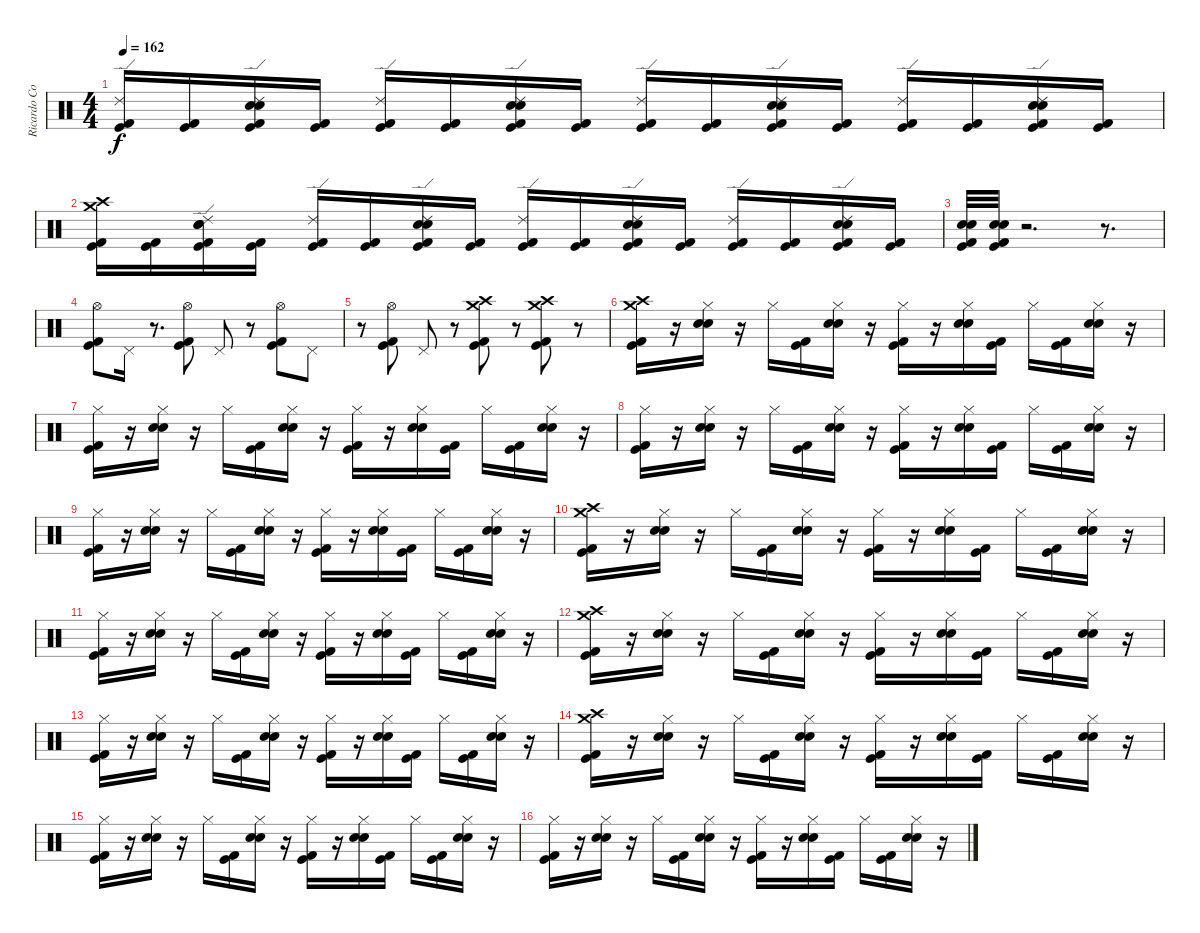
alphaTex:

\track ("Ricardo Confessori" "Ricardo Co") {instrument percussion}
\staff {score}
\articulation defaults
\ts (4 4)
\tempo 162
\clef neutral
\ks c
("Ride (edge) 2" "Kick (hit) 2" "Kick (hit)").16{dy f} ("Kick (hit) 2" "Kick (hit)").16 ("Ride (edge) 2" "Snare (hit) 2" "Electric Snare (hit)" "Kick (hit) 2" "Kick (hit)").16 ("Kick (hit) 2" "Kick (hit)").16 ("Ride (edge) 2" "Kick (hit) 2" "Kick (hit)").16 ("Kick (hit) 2" "Kick (hit)").16 ("Ride (edge) 2" "Electric Snare (hit)" "Snare (hit) 2" "Kick (hit) 2" "Kick (hit)").16 ("Kick (hit) 2" "Kick (hit)").16 ("Ride (edge) 2" "Kick (hit) 2" "Kick (hit)").16 ("Kick (hit) 2" "Kick (hit)").16 ("Ride (edge) 2" "Snare (hit) 2" "Electric Snare (hit)" "Kick (hit) 2" "Kick (hit)").16 ("Kick (hit) 2" "Kick (hit)").16 ("Ride (edge) 2" "Kick (hit) 2" "Kick (hit)").16 ("Kick (hit) 2" "Kick (hit)").16 ("Ride (edge) 2" "Electric Snare (hit)" "Snare (hit) 2" "Kick (hit) 2" "Kick (hit)").16 ("Kick (hit) 2" "Kick (hit)").16 |
("Crash high (hit)" "Crash medium (hit)" "Kick (hit) 2" "Kick (hit)").16 ("Kick (hit) 2" "Kick (hit)").16 ("Ride (edge) 2" "Snare (hit) 2" "Electric Snare (hit)" "Kick (hit) 2" "Kick (hit)").16 ("Kick (hit) 2" "Kick (hit)").16 ("Ride (edge) 2" "Kick (hit) 2" "Kick (hit)").16 ("Kick (hit) 2" "Kick (hit)").16 ("Ride (edge) 2" "Electric Snare (hit)" "Snare (hit) 2" "Kick (hit) 2" "Kick (hit)").16 ("Kick (hit) 2" "Kick (hit)").16 ("Ride (edge) 2" "Kick (hit) 2" "Kick (hit)").16 ("Kick (hit) 2" "Kick (hit)").16 ("Ride (edge) 2" "Snare (hit) 2" "Electric Snare (hit)" "Kick (hit) 2" "Kick (hit)").16 ("Kick (hit) 2" "Kick (hit)").16 ("Ride (edge) 2" "Kick (hit) 2" "Kick (hit)").16 ("Kick (hit) 2" "Kick (hit)").16 ("Ride (edge) 2" "Electric Snare (hit)" "Snare (hit) 2" "Kick (hit) 2" "Kick (hit)").16 ("Kick (hit) 2" "Kick (hit)").16 |
("Electric Snare (hit)" "Kick (hit) 2" "Kick (hit)" "Snare (hit) 2").32 ("Electric Snare (hit)" "Kick (hit) 2" "Kick (hit)" "Snare (hit) 2").32 r.2{d} r.8{d} |
("Kick (hit) 2" "Kick (hit)" "Hi-Hat (open)").8 "Pedal Hi-Hat (hit)".16 r.8{d} ("Kick (hit) 2" "Kick (hit)" "Hi-Hat (open)").8 "Pedal Hi-Hat (hit)".8 r.8 ("Kick (hit)" "Hi-Hat (open)" "Kick (hit) 2").8 "Pedal Hi-Hat (hit)".8 |
r.8 ("Hi-Hat (open)" "Kick (hit)" "Kick (hit) 2").8 "Pedal Hi-Hat (hit)".8 r.8 ("Crash high (hit)" "Crash medium (hit)" "Kick (hit)" "Kick (hit) 2").8 r.8 ("Crash high (hit)" "Crash medium (hit)" "Kick (hit) 2" "Kick (hit)").8 r.8 |
("Crash medium (hit)" "Crash high (hit)" "Kick (hit) 2" "Kick (hit)").16 r.16 ("Hi-Hat (closed)" "Electric Snare (hit)" "Snare (hit) 2").16 r.16 "Hi-Hat (closed)".16 ("Kick (hit) 2" "Kick (hit)").16 ("Hi-Hat (closed)" "Electric Snare (hit)" "Snare (hit) 2").16 r.16 ("Hi-Hat (closed)" "Kick (hit) 2" "Kick (hit)").16 r.16 ("Hi-Hat (closed)" "Electric Snare (hit)" "Snare (hit) 2").16 ("Kick (hit) 2" "Kick (hit)").16 "Hi-Hat (closed)".16 ("Kick (hit) 2" "Kick (hit)").16 ("Hi-Hat (closed)" "Electric Snare (hit)" "Snare (hit) 2").16 r.16 |
("Hi-Hat (closed)" "Kick (hit) 2" "Kick (hit)").16 r.16 ("Hi-Hat (closed)" "Electric Snare (hit)" "Snare (hit) 2").16 r.16 "Hi-Hat (closed)".16 ("Kick (hit) 2" "Kick (hit)").16 ("Hi-Hat (closed)" "Electric Snare (hit)" "Snare (hit) 2").16 r.16 ("Hi-Hat (closed)" "Kick (hit) 2" "Kick (hit)").16 r.16 ("Hi-Hat (closed)" "Electric Snare (hit)" "Snare (hit) 2").16 ("Kick (hit) 2" "Kick (hit)").16 "Hi-Hat (closed)".16 ("Kick (hit) 2" "Kick (hit)").16 ("Hi-Hat (closed)" "Electric Snare (hit)" "Snare (hit) 2").16 r.16 |
("Hi-Hat (closed)" "Kick (hit) 2" "Kick (hit)").16 r.16 ("Hi-Hat (closed)" "Electric Snare (hit)" "Snare (hit) 2").16 r.16 "Hi-Hat (closed)".16 ("Kick (hit) 2" "Kick (hit)").16 ("Hi-Hat (closed)" "Electric Snare (hit)" "Snare (hit) 2").16 r.16 ("Hi-Hat (closed)" "Kick (hit) 2" "Kick (hit)").16 r.16 ("Hi-Hat (closed)" "Electric Snare (hit)" "Snare (hit) 2").16 ("Kick (hit) 2" "Kick (hit)").16 "Hi-Hat (closed)".16 ("Kick (hit) 2" "Kick (hit)").16 ("Hi-Hat (closed)" "Electric Snare (hit)" "Snare (hit) 2").16 r.16 |
("Hi-Hat (closed)" "Kick (hit) 2" "Kick (hit)").16 r.16 ("Hi-Hat (closed)" "Electric Snare (hit)" "Snare (hit) 2").16 r.16 "Hi-Hat (closed)".16 ("Kick (hit) 2" "Kick (hit)").16 ("Hi-Hat (closed)" "Electric Snare (hit)" "Snare (hit) 2").16 r.16 ("Hi-Hat (closed)" "Kick (hit) 2" "Kick (hit)").16 r.16 ("Hi-Hat (closed)" "Electric Snare (hit)" "Snare (hit) 2").16 ("Kick (hit) 2" "Kick (hit)").16 "Hi-Hat (closed)".16 ("Kick (hit) 2" "Kick (hit)").16 ("Hi-Hat (closed)" "Electric Snare (hit)" "Snare (hit) 2").16 r.16 |
("Crash medium (hit)" "Crash high (hit)" "Kick (hit) 2" "Kick (hit)").16 r.16 ("Hi-Hat (closed)" "Electric Snare (hit)" "Snare (hit) 2").16 r.16 "Hi-Hat (closed)".16 ("Kick (hit) 2" "Kick (hit)").16 ("Hi-Hat (closed)" "Electric Snare (hit)" "Snare (hit) 2").16 r.16 ("Hi-Hat (closed)" "Kick (hit) 2" "Kick (hit)").16 r.16 ("Hi-Hat (closed)" "Electric Snare (hit)" "Snare (hit) 2").16 ("Kick (hit) 2" "Kick (hit)").16 "Hi-Hat (closed)".16 ("Kick (hit) 2" "Kick (hit)").16 ("Hi-Hat (closed)" "Electric Snare (hit)" "Snare (hit) 2").16 r.16 |
("Hi-Hat (closed)" "Kick (hit) 2" "Kick (hit)").16 r.16 ("Hi-Hat (closed)" "Electric Snare (hit)" "Snare (hit) 2").16 r.16 "Hi-Hat (closed)".16 ("Kick (hit) 2" "Kick (hit)").16 ("Hi-Hat (closed)" "Electric Snare (hit)" "Snare (hit) 2").16 r.16 ("Hi-Hat (closed)" "Kick (hit) 2" "Kick (hit)").16 r.16 ("Hi-Hat (closed)" "Electric Snare (hit)" "Snare (hit) 2").16 ("Kick (hit) 2" "Kick (hit)").16 "Hi-Hat (closed)".16 ("Kick (hit) 2" "Kick (hit)").16 ("Hi-Hat (closed)" "Electric Snare (hit)" "Snare (hit) 2").16 r.16 |
("Crash medium (hit)" "Crash high (hit)" "Kick (hit) 2" "Kick (hit)").16 r.16 ("Hi-Hat (closed)" "Electric Snare (hit)" "Snare (hit) 2").16 r.16 "Hi-Hat (closed)".16 ("Kick (hit) 2" "Kick (hit)").16 ("Hi-Hat (closed)" "Electric Snare (hit)" "Snare (hit) 2").16 r.16 ("Hi-Hat (closed)" "Kick (hit) 2" "Kick (hit)").16 r.16 ("Hi-Hat (closed)" "Electric Snare (hit)" "Snare (hit) 2").16 ("Kick (hit) 2" "Kick (hit)").16 "Hi-Hat (closed)".16 ("Kick (hit) 2" "Kick (hit)").16 ("Hi-Hat (closed)" "Electric Snare (hit)" "Snare (hit) 2").16 r.16 |
("Hi-Hat (closed)" "Kick (hit) 2" "Kick (hit)").16 r.16 ("Hi-Hat (closed)" "Electric Snare (hit)" "Snare (hit) 2").16 r.16 "Hi-Hat (closed)".16 ("Kick (hit) 2" "Kick (hit)").16 ("Hi-Hat (closed)" "Electric Snare (hit)" "Snare (hit) 2").16 r.16 ("Hi-Hat (closed)" "Kick (hit) 2" "Kick (hit)").16 r.16 ("Hi-Hat (closed)" "Electric Snare (hit)" "Snare (hit) 2").16 ("Kick (hit) 2" "Kick (hit)").16 "Hi-Hat (closed)".16 ("Kick (hit) 2" "Kick (hit)").16 ("Hi-Hat (closed)" "Electric Snare (hit)" "Snare (hit) 2").16 r.16 |
("Crash medium (hit)" "Crash high (hit)" "Kick (hit) 2" "Kick (hit)").16 r.16 ("Hi-Hat (closed)" "Electric Snare (hit)" "Snare (hit) 2").16 r.16 "Hi-Hat (closed)".16 ("Kick (hit) 2" "Kick (hit)").16 ("Hi-Hat (closed)" "Electric Snare (hit)" "Snare (hit) 2").16 r.16 ("Hi-Hat (closed)" "Kick (hit) 2" "Kick (hit)").16 r.16 ("Hi-Hat (closed)" "Electric Snare (hit)" "Snare (hit) 2").16 ("Kick (hit) 2" "Kick (hit)").16 "Hi-Hat (closed)".16 ("Kick (hit) 2" "Kick (hit)").16 ("Hi-Hat (closed)" "Electric Snare (hit)" "Snare (hit) 2").16 r.16 |
("Hi-Hat (closed)" "Kick (hit) 2" "Kick (hit)").16 r.16 ("Hi-Hat (closed)" "Electric Snare (hit)" "Snare (hit) 2").16 r.16 "Hi-Hat (closed)".16 ("Kick (hit) 2" "Kick (hit)").16 ("Hi-Hat (closed)" "Electric Snare (hit)" "Snare (hit) 2").16 r.16 ("Hi-Hat (closed)" "Kick (hit) 2" "Kick (hit)").16 r.16 ("Hi-Hat (closed)" "Electric Snare (hit)" "Snare (hit) 2").16 ("Kick (hit) 2" "Kick (hit)").16 "Hi-Hat (closed)".16 ("Kick (hit) 2" "Kick (hit)").16 ("Hi-Hat (closed)" "Electric Snare (hit)" "Snare (hit) 2").16 r.16 |
("Hi-Hat (closed)" "Kick (hit) 2" "Kick (hit)").16 r.16 ("Hi-Hat (closed)" "Electric Snare (hit)" "Snare (hit) 2").16 r.16 "Hi-Hat (closed)".16 ("Kick (hit) 2" "Kick (hit)").16 ("Hi-Hat (closed)" "Electric Snare (hit)" "Snare (hit) 2").16 r.16 ("Hi-Hat (closed)" "Kick (hit) 2" "Kick (hit)").16 r.16 ("Hi-Hat (closed)" "Electric Snare (hit)" "Snare (hit) 2").16 ("Kick (hit) 2" "Kick (hit)").16 "Hi-Hat (closed)".16 ("Kick (hit) 2" "Kick (hit)").16 ("Hi-Hat (closed)" "Electric Snare (hit)" "Snare (hit) 2").16 r.16
